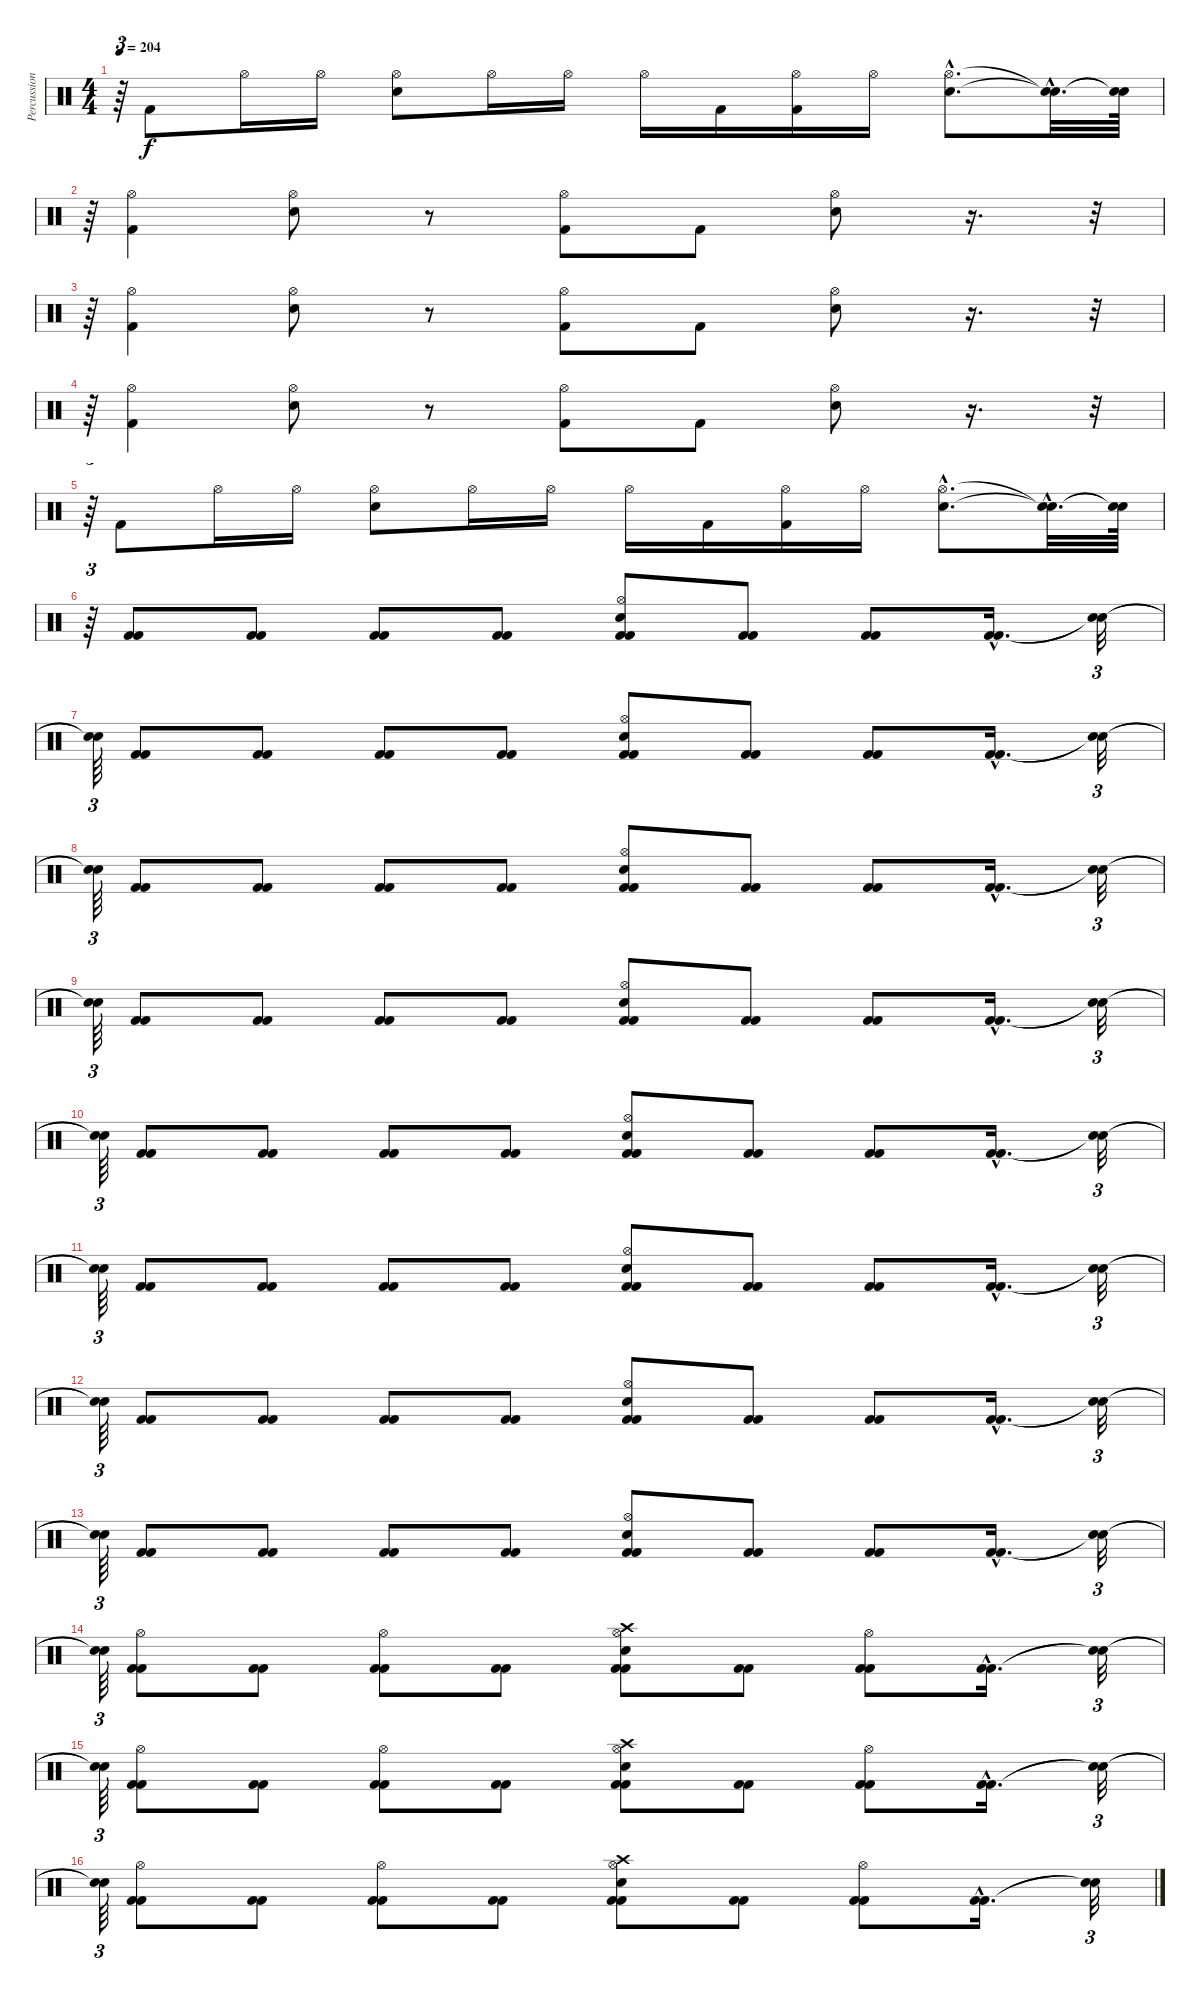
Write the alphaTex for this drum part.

\track ("Percussions" "Percussion") {instrument percussion}
\staff {score}
\articulation defaults
\ts (4 4)
\tempo 204
\clef neutral
\ks c
r.64{tu (3 2) dy f} "Kick (hit) 2".8 "Hi-Hat (open)".16 "Hi-Hat (open)".16 ("Hi-Hat (open)" "Electric Snare (hit)").8 "Hi-Hat (open)".16 "Hi-Hat (open)".16 "Hi-Hat (open)".16 "Kick (hit) 2".16 ("Hi-Hat (open)" "Kick (hit) 2").16 "Hi-Hat (open)".16 ("Hi-Hat (open)"{hac} "Electric Snare (hit)"{hac}).8{d} ("Snare (hit)"{hac t} "Snare (hit)"{hac t}).32{d} ("Snare (hit)"{t} "Snare (hit)"{t}).64 |
r.64{tu (3 2)} ("Hi-Hat (open)" "Kick (hit) 2").4 ("Hi-Hat (open)" "Electric Snare (hit)").8 r.8 ("Hi-Hat (open)" "Kick (hit) 2").8 "Kick (hit) 2".8 ("Hi-Hat (open)" "Electric Snare (hit)").8 r.16{d} r.32{tu (3 2)} |
r.64{tu (3 2)} ("Hi-Hat (open)" "Kick (hit) 2").4 ("Hi-Hat (open)" "Electric Snare (hit)").8 r.8 ("Hi-Hat (open)" "Kick (hit) 2").8 "Kick (hit) 2".8 ("Hi-Hat (open)" "Electric Snare (hit)").8 r.16{d} r.32{tu (3 2)} |
r.64{tu (3 2)} ("Hi-Hat (open)" "Kick (hit) 2").4 ("Hi-Hat (open)" "Electric Snare (hit)").8 r.8 ("Hi-Hat (open)" "Kick (hit) 2").8 "Kick (hit) 2".8 ("Hi-Hat (open)" "Electric Snare (hit)").8 r.16{d} r.32{tu (3 2)} |
r.64{tu (3 2)} "Kick (hit) 2".8 "Hi-Hat (open)".16 "Hi-Hat (open)".16 ("Hi-Hat (open)" "Electric Snare (hit)").8 "Hi-Hat (open)".16 "Hi-Hat (open)".16 "Hi-Hat (open)".16 "Kick (hit) 2".16 ("Hi-Hat (open)" "Kick (hit) 2").16 "Hi-Hat (open)".16 ("Hi-Hat (open)"{hac} "Electric Snare (hit)"{hac}).8{d} ("Snare (hit)"{hac t} "Snare (hit)"{hac t}).32{d} ("Snare (hit)"{t} "Snare (hit)"{t}).64 |
r.64{tu (3 2)} ("Kick (hit) 2" "Kick (hit) 2").8 ("Kick (hit) 2" "Kick (hit) 2").8 ("Kick (hit) 2" "Kick (hit) 2").8 ("Kick (hit) 2" "Kick (hit) 2").8 ("Kick (hit) 2" "Hi-Hat (open)" "Electric Snare (hit)" "Kick (hit) 2").8 ("Kick (hit) 2" "Kick (hit) 2").8 ("Kick (hit) 2" "Kick (hit) 2").8 ("Kick (hit) 2"{hac} "Kick (hit) 2"{hac}).16{d} ("Snare (hit)"{t} "Snare (hit)"{t}).32{tu (3 2)} |
("Snare (hit)"{t} "Snare (hit)"{t}).64{tu (3 2)} ("Kick (hit) 2" "Kick (hit) 2").8 ("Kick (hit) 2" "Kick (hit) 2").8 ("Kick (hit) 2" "Kick (hit) 2").8 ("Kick (hit) 2" "Kick (hit) 2").8 ("Kick (hit) 2" "Hi-Hat (open)" "Electric Snare (hit)" "Kick (hit) 2").8 ("Kick (hit) 2" "Kick (hit) 2").8 ("Kick (hit) 2" "Kick (hit) 2").8 ("Kick (hit) 2"{hac} "Kick (hit) 2"{hac}).16{d} ("Snare (hit)"{t} "Snare (hit)"{t}).32{tu (3 2)} |
("Snare (hit)"{t} "Snare (hit)"{t}).64{tu (3 2)} ("Kick (hit) 2" "Kick (hit) 2").8 ("Kick (hit) 2" "Kick (hit) 2").8 ("Kick (hit) 2" "Kick (hit) 2").8 ("Kick (hit) 2" "Kick (hit) 2").8 ("Kick (hit) 2" "Hi-Hat (open)" "Electric Snare (hit)" "Kick (hit) 2").8 ("Kick (hit) 2" "Kick (hit) 2").8 ("Kick (hit) 2" "Kick (hit) 2").8 ("Kick (hit) 2"{hac} "Kick (hit) 2"{hac}).16{d} ("Snare (hit)"{t} "Snare (hit)"{t}).32{tu (3 2)} |
("Snare (hit)"{t} "Snare (hit)"{t}).64{tu (3 2)} ("Kick (hit) 2" "Kick (hit) 2").8 ("Kick (hit) 2" "Kick (hit) 2").8 ("Kick (hit) 2" "Kick (hit) 2").8 ("Kick (hit) 2" "Kick (hit) 2").8 ("Kick (hit) 2" "Hi-Hat (open)" "Electric Snare (hit)" "Kick (hit) 2").8 ("Kick (hit) 2" "Kick (hit) 2").8 ("Kick (hit) 2" "Kick (hit) 2").8 ("Kick (hit) 2"{hac} "Kick (hit) 2"{hac}).16{d} ("Snare (hit)"{t} "Snare (hit)"{t}).32{tu (3 2)} |
("Snare (hit)"{t} "Snare (hit)"{t}).64{tu (3 2)} ("Kick (hit) 2" "Kick (hit) 2").8 ("Kick (hit) 2" "Kick (hit) 2").8 ("Kick (hit) 2" "Kick (hit) 2").8 ("Kick (hit) 2" "Kick (hit) 2").8 ("Kick (hit) 2" "Hi-Hat (open)" "Electric Snare (hit)" "Kick (hit) 2").8 ("Kick (hit) 2" "Kick (hit) 2").8 ("Kick (hit) 2" "Kick (hit) 2").8 ("Kick (hit) 2"{hac} "Kick (hit) 2"{hac}).16{d} ("Snare (hit)"{t} "Snare (hit)"{t}).32{tu (3 2)} |
("Snare (hit)"{t} "Snare (hit)"{t}).64{tu (3 2)} ("Kick (hit) 2" "Kick (hit) 2").8 ("Kick (hit) 2" "Kick (hit) 2").8 ("Kick (hit) 2" "Kick (hit) 2").8 ("Kick (hit) 2" "Kick (hit) 2").8 ("Kick (hit) 2" "Hi-Hat (open)" "Electric Snare (hit)" "Kick (hit) 2").8 ("Kick (hit) 2" "Kick (hit) 2").8 ("Kick (hit) 2" "Kick (hit) 2").8 ("Kick (hit) 2"{hac} "Kick (hit) 2"{hac}).16{d} ("Snare (hit)"{t} "Snare (hit)"{t}).32{tu (3 2)} |
("Snare (hit)"{t} "Snare (hit)"{t}).64{tu (3 2)} ("Kick (hit) 2" "Kick (hit) 2").8 ("Kick (hit) 2" "Kick (hit) 2").8 ("Kick (hit) 2" "Kick (hit) 2").8 ("Kick (hit) 2" "Kick (hit) 2").8 ("Kick (hit) 2" "Hi-Hat (open)" "Electric Snare (hit)" "Kick (hit) 2").8 ("Kick (hit) 2" "Kick (hit) 2").8 ("Kick (hit) 2" "Kick (hit) 2").8 ("Kick (hit) 2"{hac} "Kick (hit) 2"{hac}).16{d} ("Snare (hit)"{t} "Snare (hit)"{t}).32{tu (3 2)} |
("Snare (hit)"{t} "Snare (hit)"{t}).64{tu (3 2)} ("Kick (hit) 2" "Kick (hit) 2").8 ("Kick (hit) 2" "Kick (hit) 2").8 ("Kick (hit) 2" "Kick (hit) 2").8 ("Kick (hit) 2" "Kick (hit) 2").8 ("Kick (hit) 2" "Hi-Hat (open)" "Electric Snare (hit)" "Kick (hit) 2").8 ("Kick (hit) 2" "Kick (hit) 2").8 ("Kick (hit) 2" "Kick (hit) 2").8 ("Kick (hit) 2"{hac} "Kick (hit) 2"{hac}).16{d} ("Snare (hit)"{t} "Snare (hit)"{t}).32{tu (3 2)} |
("Snare (hit)"{t} "Snare (hit)"{t}).64{tu (3 2)} ("Kick (hit) 2" "Hi-Hat (open)" "Kick (hit) 2").8 ("Kick (hit) 2" "Kick (hit) 2").8 ("Kick (hit) 2" "Hi-Hat (open)" "Kick (hit) 2").8 ("Kick (hit) 2" "Kick (hit) 2").8 ("Kick (hit) 2" "Crash high (hit)" "Hi-Hat (open)" "Electric Snare (hit)" "Kick (hit) 2").8 ("Kick (hit) 2" "Kick (hit) 2").8 ("Kick (hit) 2" "Hi-Hat (open)" "Kick (hit) 2").8 ("Kick (hit) 2"{hac} "Kick (hit) 2"{hac}).16{d} ("Snare (hit)"{t} "Snare (hit)"{t}).32{tu (3 2)} |
("Snare (hit)"{t} "Snare (hit)"{t}).64{tu (3 2)} ("Kick (hit) 2" "Hi-Hat (open)" "Kick (hit) 2").8 ("Kick (hit) 2" "Kick (hit) 2").8 ("Kick (hit) 2" "Hi-Hat (open)" "Kick (hit) 2").8 ("Kick (hit) 2" "Kick (hit) 2").8 ("Kick (hit) 2" "Crash high (hit)" "Hi-Hat (open)" "Electric Snare (hit)" "Kick (hit) 2").8 ("Kick (hit) 2" "Kick (hit) 2").8 ("Kick (hit) 2" "Hi-Hat (open)" "Kick (hit) 2").8 ("Kick (hit) 2"{hac} "Kick (hit) 2"{hac}).16{d} ("Snare (hit)"{t} "Snare (hit)"{t}).32{tu (3 2)} |
("Snare (hit)"{t} "Snare (hit)"{t}).64{tu (3 2)} ("Kick (hit) 2" "Hi-Hat (open)" "Kick (hit) 2").8 ("Kick (hit) 2" "Kick (hit) 2").8 ("Kick (hit) 2" "Hi-Hat (open)" "Kick (hit) 2").8 ("Kick (hit) 2" "Kick (hit) 2").8 ("Kick (hit) 2" "Crash high (hit)" "Hi-Hat (open)" "Electric Snare (hit)" "Kick (hit) 2").8 ("Kick (hit) 2" "Kick (hit) 2").8 ("Kick (hit) 2" "Hi-Hat (open)" "Kick (hit) 2").8 ("Kick (hit) 2"{hac} "Kick (hit) 2"{hac}).16{d} ("Snare (hit)"{t} "Snare (hit)"{t}).32{tu (3 2)}
